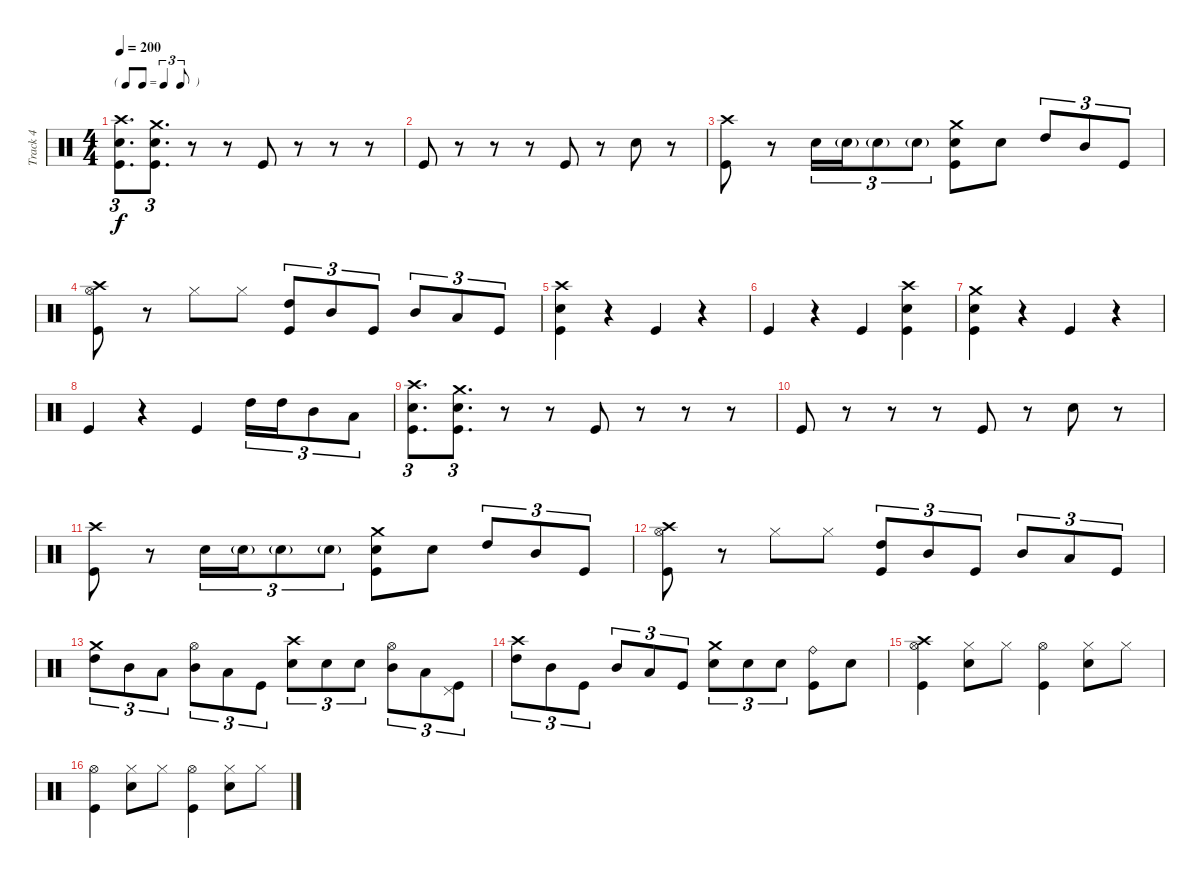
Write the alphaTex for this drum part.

\track ("Track 4" "Track 4") {instrument percussion}
\staff {score}
\articulation defaults
\ts (4 4)
\tf triplet8th
\tempo 200
\clef neutral
\ks c
("Crash high (hit)" "Electric Snare (hit)" "Kick (hit)").8{d tu (3 2) dy f} ("Crash medium (hit)" "Electric Snare (hit)" "Kick (hit)").8{d tu (3 2)} r.8 r.8 "Kick (hit)".8 r.8 r.8 r.8 |
"Kick (hit)".8 r.8 r.8 r.8 "Kick (hit)".8 r.8 "Electric Snare (hit)".8 r.8 |
("Crash high (hit)" "Kick (hit)").8 r.8 "Electric Snare (hit)".16{tu (3 2)} "Electric Snare (hit)"{g}.16{tu (3 2)} "Electric Snare (hit)"{g}.8{tu (3 2)} "Electric Snare (hit)"{g}.8{tu (3 2)} ("Crash medium (hit)" "Electric Snare (hit)" "Kick (hit)").8 "Electric Snare (hit)".8 "High Tom (hit)".8{tu (3 2)} "Mid Tom (hit)".8{tu (3 2)} "Kick (hit)".8{tu (3 2)} |
("Crash high (hit)" "Hi-Hat (open)" "Kick (hit)").8 r.8 "Hi-Hat (closed)".8 "Hi-Hat (closed)".8 ("High Tom (hit)" "Kick (hit)").8{tu (3 2)} "Mid Tom (hit)".8{tu (3 2)} "Kick (hit)".8{tu (3 2)} "Mid Tom (hit)".8{tu (3 2)} "Low Tom (hit)".8{tu (3 2)} "Kick (hit)".8{tu (3 2)} |
("Crash high (hit)" "Electric Snare (hit)" "Kick (hit)").4 r.4 "Kick (hit)".4 r.4 |
"Kick (hit)".4 r.4 "Kick (hit)".4 ("Crash high (hit)" "Electric Snare (hit)" "Kick (hit)").4 |
("Crash medium (hit)" "Electric Snare (hit)" "Kick (hit)").4 r.4 "Kick (hit)".4 r.4 |
"Kick (hit)".4 r.4 "Kick (hit)".4 "High Tom (hit)".16{tu (3 2)} "High Tom (hit)".16{tu (3 2)} "Mid Tom (hit)".8{tu (3 2)} "Low Tom (hit)".8{tu (3 2)} |
("Crash high (hit)" "Electric Snare (hit)" "Kick (hit)").8{d tu (3 2)} ("Crash medium (hit)" "Electric Snare (hit)" "Kick (hit)").8{d tu (3 2)} r.8 r.8 "Kick (hit)".8 r.8 r.8 r.8 |
"Kick (hit)".8 r.8 r.8 r.8 "Kick (hit)".8 r.8 "Electric Snare (hit)".8 r.8 |
("Crash high (hit)" "Kick (hit)").8 r.8 "Electric Snare (hit)".16{tu (3 2)} "Electric Snare (hit)"{g}.16{tu (3 2)} "Electric Snare (hit)"{g}.8{tu (3 2)} "Electric Snare (hit)"{g}.8{tu (3 2)} ("Crash medium (hit)" "Electric Snare (hit)" "Kick (hit)").8 "Electric Snare (hit)".8 "High Tom (hit)".8{tu (3 2)} "Mid Tom (hit)".8{tu (3 2)} "Kick (hit)".8{tu (3 2)} |
("Crash high (hit)" "Hi-Hat (open)" "Kick (hit)").8 r.8 "Hi-Hat (closed)".8 "Hi-Hat (closed)".8 ("High Tom (hit)" "Kick (hit)").8{tu (3 2)} "Mid Tom (hit)".8{tu (3 2)} "Kick (hit)".8{tu (3 2)} "Mid Tom (hit)".8{tu (3 2)} "Low Tom (hit)".8{tu (3 2)} "Kick (hit)".8{tu (3 2)} |
("Crash medium (hit)" "High Tom (hit)").8{tu (3 2)} "Mid Tom (hit)".8{tu (3 2)} "Low Tom (hit)".8{tu (3 2)} ("Mid Tom (hit)" "Hi-Hat (open)").8{tu (3 2)} "Low Tom (hit)".8{tu (3 2)} "Kick (hit)".8{tu (3 2)} ("Crash high (hit)" "Electric Snare (hit)").8{tu (3 2)} "Electric Snare (hit)".8{tu (3 2)} "Electric Snare (hit)".8{tu (3 2)} ("Mid Tom (hit)" "Hi-Hat (open)").8{tu (3 2)} "Low Tom (hit)".8{tu (3 2)} ("Pedal Hi-Hat (hit)" "Kick (hit)").8{tu (3 2)} |
("Crash high (hit)" "High Tom (hit)").8{tu (3 2)} "Mid Tom (hit)".8{tu (3 2)} "Kick (hit)".8{tu (3 2)} "Mid Tom (hit)".8{tu (3 2)} "Low Tom (hit)".8{tu (3 2)} "Kick (hit)".8{tu (3 2)} ("Crash medium (hit)" "Electric Snare (hit)").8{tu (3 2)} "Electric Snare (hit)".8{tu (3 2)} "Electric Snare (hit)".8{tu (3 2)} ("Ride (bell)" "Kick (hit)").8 "Electric Snare (hit)".8 |
("Crash high (hit)" "Hi-Hat (open)" "Kick (hit)").4 ("Hi-Hat (closed)" "Electric Snare (hit)").8 "Hi-Hat (closed)".8 ("Hi-Hat (open)" "Kick (hit)").4 ("Hi-Hat (closed)" "Electric Snare (hit)").8 "Hi-Hat (closed)".8 |
("Hi-Hat (open)" "Kick (hit)").4 ("Hi-Hat (closed)" "Electric Snare (hit)").8 "Hi-Hat (closed)".8 ("Hi-Hat (open)" "Kick (hit)").4 ("Hi-Hat (closed)" "Electric Snare (hit)").8 "Hi-Hat (closed)".8
